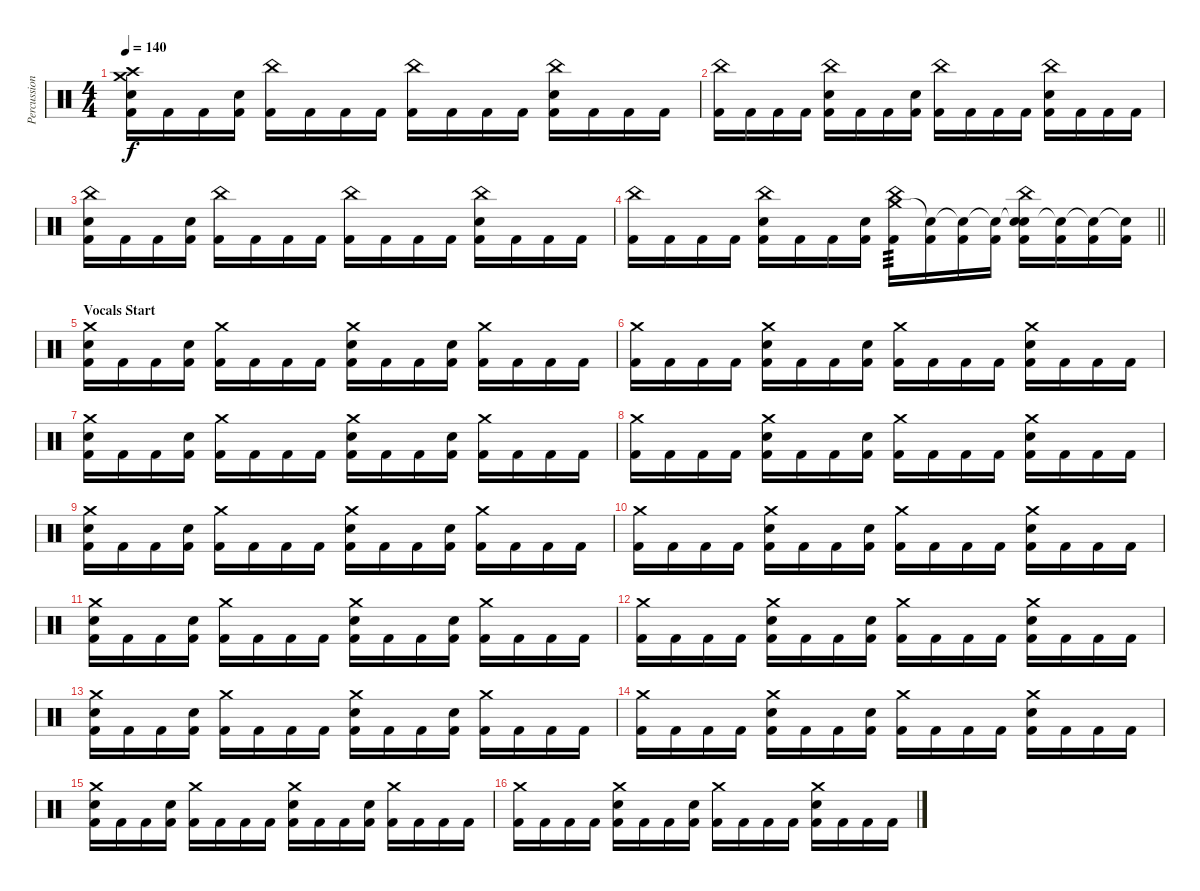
\track ("Percussion" "Percussion") {instrument percussion}
\staff {score}
\articulation defaults
\ts (4 4)
\tempo 140
\clef neutral
\ks c
("Crash medium (hit)" "Crash high (hit)" "Snare (hit) 2" "Kick (hit) 2").16{dy f} "Kick (hit) 2".16 "Kick (hit) 2".16 ("Snare (hit) 2" "Kick (hit) 2").16 ("China (hit)" "Kick (hit) 2").16 "Kick (hit) 2".16 "Kick (hit) 2".16 "Kick (hit) 2".16 ("China (hit)" "Kick (hit) 2").16 "Kick (hit) 2".16 "Kick (hit) 2".16 "Kick (hit) 2".16 ("China (hit)" "Snare (hit) 2" "Kick (hit) 2").16 "Kick (hit) 2".16 "Kick (hit) 2".16 "Kick (hit) 2".16 |
("China (hit)" "Kick (hit) 2").16 "Kick (hit) 2".16 "Kick (hit) 2".16 "Kick (hit) 2".16 ("China (hit)" "Snare (hit) 2" "Kick (hit) 2").16 "Kick (hit) 2".16 "Kick (hit) 2".16 ("Snare (hit) 2" "Kick (hit) 2").16 ("China (hit)" "Kick (hit) 2").16 "Kick (hit) 2".16 "Kick (hit) 2".16 "Kick (hit) 2".16 ("China (hit)" "Snare (hit) 2" "Kick (hit) 2").16 "Kick (hit) 2".16 "Kick (hit) 2".16 "Kick (hit) 2".16 |
("China (hit)" "Snare (hit) 2" "Kick (hit) 2").16 "Kick (hit) 2".16 "Kick (hit) 2".16 ("Snare (hit) 2" "Kick (hit) 2").16 ("China (hit)" "Kick (hit) 2").16 "Kick (hit) 2".16 "Kick (hit) 2".16 "Kick (hit) 2".16 ("China (hit)" "Kick (hit) 2").16 "Kick (hit) 2".16 "Kick (hit) 2".16 "Kick (hit) 2".16 ("China (hit)" "Snare (hit) 2" "Kick (hit) 2").16 "Kick (hit) 2".16 "Kick (hit) 2".16 "Kick (hit) 2".16 |
\barLineRight lightlight
("China (hit)" "Kick (hit) 2").16 "Kick (hit) 2".16 "Kick (hit) 2".16 "Kick (hit) 2".16 ("China (hit)" "Snare (hit) 2" "Kick (hit) 2").16 "Kick (hit) 2".16 "Kick (hit) 2".16 ("Snare (hit) 2" "Kick (hit) 2").16 ("Crash medium (hit)" "China (hit)" "Kick (hit) 2").16{tp 3} ("Snare (hit)"{t} "Kick (hit) 2").16 ("Snare (hit)"{t} "Kick (hit) 2").16 ("Snare (hit)"{t} "Kick (hit) 2").16 ("Snare (hit)"{t} "China (hit)" "Snare (hit) 2" "Kick (hit) 2").16 ("Snare (hit)"{t} "Kick (hit) 2").16 ("Snare (hit)"{t} "Kick (hit) 2").16 ("Snare (hit)"{t} "Kick (hit) 2").16 |
\section ("" "Vocals Start")
("Crash medium (hit)" "Snare (hit) 2" "Kick (hit) 2").16 "Kick (hit) 2".16 "Kick (hit) 2".16 ("Snare (hit) 2" "Kick (hit) 2").16 ("Crash medium (hit)" "Kick (hit) 2").16 "Kick (hit) 2".16 "Kick (hit) 2".16 "Kick (hit) 2".16 ("Crash medium (hit)" "Snare (hit) 2" "Kick (hit) 2").16 "Kick (hit) 2".16 "Kick (hit) 2".16 ("Snare (hit) 2" "Kick (hit) 2").16 ("Crash medium (hit)" "Kick (hit) 2").16 "Kick (hit) 2".16 "Kick (hit) 2".16 "Kick (hit) 2".16 |
("Crash medium (hit)" "Kick (hit) 2").16 "Kick (hit) 2".16 "Kick (hit) 2".16 "Kick (hit) 2".16 ("Crash medium (hit)" "Snare (hit) 2" "Kick (hit) 2").16 "Kick (hit) 2".16 "Kick (hit) 2".16 ("Snare (hit) 2" "Kick (hit) 2").16 ("Crash medium (hit)" "Kick (hit) 2").16 "Kick (hit) 2".16 "Kick (hit) 2".16 "Kick (hit) 2".16 ("Crash medium (hit)" "Snare (hit) 2" "Kick (hit) 2").16 "Kick (hit) 2".16 "Kick (hit) 2".16 "Kick (hit) 2".16 |
("Crash medium (hit)" "Snare (hit) 2" "Kick (hit) 2").16 "Kick (hit) 2".16 "Kick (hit) 2".16 ("Snare (hit) 2" "Kick (hit) 2").16 ("Crash medium (hit)" "Kick (hit) 2").16 "Kick (hit) 2".16 "Kick (hit) 2".16 "Kick (hit) 2".16 ("Crash medium (hit)" "Snare (hit) 2" "Kick (hit) 2").16 "Kick (hit) 2".16 "Kick (hit) 2".16 ("Snare (hit) 2" "Kick (hit) 2").16 ("Crash medium (hit)" "Kick (hit) 2").16 "Kick (hit) 2".16 "Kick (hit) 2".16 "Kick (hit) 2".16 |
("Crash medium (hit)" "Kick (hit) 2").16 "Kick (hit) 2".16 "Kick (hit) 2".16 "Kick (hit) 2".16 ("Crash medium (hit)" "Snare (hit) 2" "Kick (hit) 2").16 "Kick (hit) 2".16 "Kick (hit) 2".16 ("Snare (hit) 2" "Kick (hit) 2").16 ("Crash medium (hit)" "Kick (hit) 2").16 "Kick (hit) 2".16 "Kick (hit) 2".16 "Kick (hit) 2".16 ("Crash medium (hit)" "Snare (hit) 2" "Kick (hit) 2").16 "Kick (hit) 2".16 "Kick (hit) 2".16 "Kick (hit) 2".16 |
("Crash medium (hit)" "Snare (hit) 2" "Kick (hit) 2").16 "Kick (hit) 2".16 "Kick (hit) 2".16 ("Snare (hit) 2" "Kick (hit) 2").16 ("Crash medium (hit)" "Kick (hit) 2").16 "Kick (hit) 2".16 "Kick (hit) 2".16 "Kick (hit) 2".16 ("Crash medium (hit)" "Snare (hit) 2" "Kick (hit) 2").16 "Kick (hit) 2".16 "Kick (hit) 2".16 ("Snare (hit) 2" "Kick (hit) 2").16 ("Crash medium (hit)" "Kick (hit) 2").16 "Kick (hit) 2".16 "Kick (hit) 2".16 "Kick (hit) 2".16 |
("Crash medium (hit)" "Kick (hit) 2").16 "Kick (hit) 2".16 "Kick (hit) 2".16 "Kick (hit) 2".16 ("Crash medium (hit)" "Snare (hit) 2" "Kick (hit) 2").16 "Kick (hit) 2".16 "Kick (hit) 2".16 ("Snare (hit) 2" "Kick (hit) 2").16 ("Crash medium (hit)" "Kick (hit) 2").16 "Kick (hit) 2".16 "Kick (hit) 2".16 "Kick (hit) 2".16 ("Crash medium (hit)" "Snare (hit) 2" "Kick (hit) 2").16 "Kick (hit) 2".16 "Kick (hit) 2".16 "Kick (hit) 2".16 |
("Crash medium (hit)" "Snare (hit) 2" "Kick (hit) 2").16 "Kick (hit) 2".16 "Kick (hit) 2".16 ("Snare (hit) 2" "Kick (hit) 2").16 ("Crash medium (hit)" "Kick (hit) 2").16 "Kick (hit) 2".16 "Kick (hit) 2".16 "Kick (hit) 2".16 ("Crash medium (hit)" "Snare (hit) 2" "Kick (hit) 2").16 "Kick (hit) 2".16 "Kick (hit) 2".16 ("Snare (hit) 2" "Kick (hit) 2").16 ("Crash medium (hit)" "Kick (hit) 2").16 "Kick (hit) 2".16 "Kick (hit) 2".16 "Kick (hit) 2".16 |
("Crash medium (hit)" "Kick (hit) 2").16 "Kick (hit) 2".16 "Kick (hit) 2".16 "Kick (hit) 2".16 ("Crash medium (hit)" "Snare (hit) 2" "Kick (hit) 2").16 "Kick (hit) 2".16 "Kick (hit) 2".16 ("Snare (hit) 2" "Kick (hit) 2").16 ("Crash medium (hit)" "Kick (hit) 2").16 "Kick (hit) 2".16 "Kick (hit) 2".16 "Kick (hit) 2".16 ("Crash medium (hit)" "Snare (hit) 2" "Kick (hit) 2").16 "Kick (hit) 2".16 "Kick (hit) 2".16 "Kick (hit) 2".16 |
("Crash medium (hit)" "Snare (hit) 2" "Kick (hit) 2").16 "Kick (hit) 2".16 "Kick (hit) 2".16 ("Snare (hit) 2" "Kick (hit) 2").16 ("Crash medium (hit)" "Kick (hit) 2").16 "Kick (hit) 2".16 "Kick (hit) 2".16 "Kick (hit) 2".16 ("Crash medium (hit)" "Snare (hit) 2" "Kick (hit) 2").16 "Kick (hit) 2".16 "Kick (hit) 2".16 ("Snare (hit) 2" "Kick (hit) 2").16 ("Crash medium (hit)" "Kick (hit) 2").16 "Kick (hit) 2".16 "Kick (hit) 2".16 "Kick (hit) 2".16 |
("Crash medium (hit)" "Kick (hit) 2").16 "Kick (hit) 2".16 "Kick (hit) 2".16 "Kick (hit) 2".16 ("Crash medium (hit)" "Snare (hit) 2" "Kick (hit) 2").16 "Kick (hit) 2".16 "Kick (hit) 2".16 ("Snare (hit) 2" "Kick (hit) 2").16 ("Crash medium (hit)" "Kick (hit) 2").16 "Kick (hit) 2".16 "Kick (hit) 2".16 "Kick (hit) 2".16 ("Crash medium (hit)" "Snare (hit) 2" "Kick (hit) 2").16 "Kick (hit) 2".16 "Kick (hit) 2".16 "Kick (hit) 2".16 |
("Crash medium (hit)" "Snare (hit) 2" "Kick (hit) 2").16 "Kick (hit) 2".16 "Kick (hit) 2".16 ("Snare (hit) 2" "Kick (hit) 2").16 ("Crash medium (hit)" "Kick (hit) 2").16 "Kick (hit) 2".16 "Kick (hit) 2".16 "Kick (hit) 2".16 ("Crash medium (hit)" "Snare (hit) 2" "Kick (hit) 2").16 "Kick (hit) 2".16 "Kick (hit) 2".16 ("Snare (hit) 2" "Kick (hit) 2").16 ("Crash medium (hit)" "Kick (hit) 2").16 "Kick (hit) 2".16 "Kick (hit) 2".16 "Kick (hit) 2".16 |
("Crash medium (hit)" "Kick (hit) 2").16 "Kick (hit) 2".16 "Kick (hit) 2".16 "Kick (hit) 2".16 ("Crash medium (hit)" "Snare (hit) 2" "Kick (hit) 2").16 "Kick (hit) 2".16 "Kick (hit) 2".16 ("Snare (hit) 2" "Kick (hit) 2").16 ("Crash medium (hit)" "Kick (hit) 2").16 "Kick (hit) 2".16 "Kick (hit) 2".16 "Kick (hit) 2".16 ("Crash medium (hit)" "Snare (hit) 2" "Kick (hit) 2").16 "Kick (hit) 2".16 "Kick (hit) 2".16 "Kick (hit) 2".16
